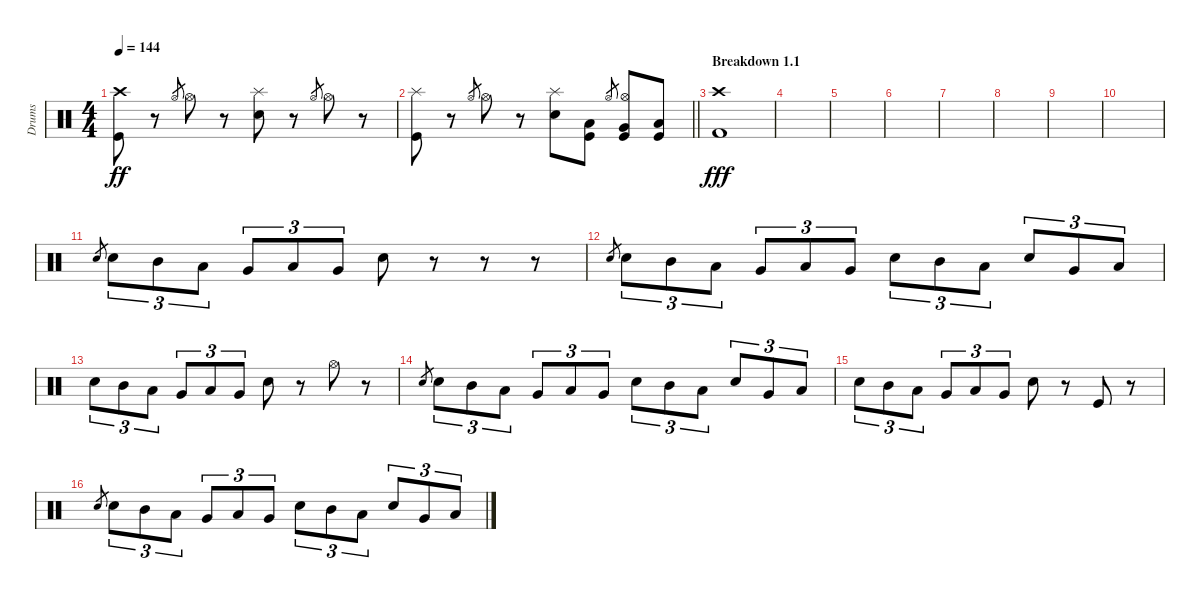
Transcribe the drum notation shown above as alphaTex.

\track ("Drums" "Drums") {instrument percussion}
\staff {score}
\articulation defaults
\ts (4 4)
\tempo 144
\clef neutral
\ks c
("Crash high (hit)" "Kick (hit)").8{dy ff} r.8 "Hi-Hat (open)".8{gr} "Hi-Hat (open)".8 r.8 ("Splash (hit)" "Snare (hit) 2").8 r.8 "Hi-Hat (open)".8{gr} "Hi-Hat (open)".8 r.8 |
\barLineRight lightlight
("Splash (hit)" "Kick (hit)").8 r.8 "Hi-Hat (open)".8{gr} "Hi-Hat (open)".8 r.8 ("Splash (hit)" "Snare (hit) 2").8 ("Low Tom (hit)" "Kick (hit)").8 "Hi-Hat (open)".8{gr} ("Hi-Hat (open)" "Very Low Tom (hit)" "Kick (hit)").8 ("Low Floor Tom (hit)" "Kick (hit)").8 |
\section ("" "Breakdown 1.1")
("Crash high (hit)" "Kick (hit) 2").1{dy fff} |
|
|
|
|
|
|
|
"Snare (hit) 2".8{gr} "Snare (hit) 2".8{tu (3 2)} "Mid Tom (hit)".8{tu (3 2)} "Low Tom (hit)".8{tu (3 2)} "Very Low Tom (hit)".8{tu (3 2)} "Low Floor Tom (hit)".8{tu (3 2)} "Very Low Tom (hit)".8{tu (3 2)} "Snare (hit) 2".8 r.8 r.8 r.8 |
"Snare (hit) 2".8{gr} "Snare (hit) 2".8{tu (3 2)} "Mid Tom (hit)".8{tu (3 2)} "Low Tom (hit)".8{tu (3 2)} "Very Low Tom (hit)".8{tu (3 2)} "Low Floor Tom (hit)".8{tu (3 2)} "Very Low Tom (hit)".8{tu (3 2)} "Snare (hit) 2".8{tu (3 2)} "Mid Tom (hit)".8{tu (3 2)} "Low Tom (hit)".8{tu (3 2)} "Snare (hit) 2".8{tu (3 2)} "Very Low Tom (hit)".8{tu (3 2)} "Low Floor Tom (hit)".8{tu (3 2)} |
"Snare (hit) 2".8{tu (3 2)} "Mid Tom (hit)".8{tu (3 2)} "Low Tom (hit)".8{tu (3 2)} "Very Low Tom (hit)".8{tu (3 2)} "Low Floor Tom (hit)".8{tu (3 2)} "Very Low Tom (hit)".8{tu (3 2)} "Snare (hit) 2".8 r.8 "Hi-Hat (open)".8 r.8{volume 0} |
"Snare (hit) 2".8{gr} "Snare (hit) 2".8{tu (3 2) volume 16} "Mid Tom (hit)".8{tu (3 2)} "Low Tom (hit)".8{tu (3 2)} "Very Low Tom (hit)".8{tu (3 2)} "Low Floor Tom (hit)".8{tu (3 2)} "Very Low Tom (hit)".8{tu (3 2)} "Snare (hit) 2".8{tu (3 2)} "Mid Tom (hit)".8{tu (3 2)} "Low Tom (hit)".8{tu (3 2)} "Snare (hit) 2".8{tu (3 2)} "Very Low Tom (hit)".8{tu (3 2)} "Low Floor Tom (hit)".8{tu (3 2)} |
"Snare (hit) 2".8{tu (3 2)} "Mid Tom (hit)".8{tu (3 2)} "Low Tom (hit)".8{tu (3 2)} "Very Low Tom (hit)".8{tu (3 2)} "Low Floor Tom (hit)".8{tu (3 2)} "Very Low Tom (hit)".8{tu (3 2)} "Snare (hit) 2".8 r.8 "Kick (hit)".8 r.8 |
"Snare (hit) 2".8{gr} "Snare (hit) 2".8{tu (3 2)} "Mid Tom (hit)".8{tu (3 2)} "Low Tom (hit)".8{tu (3 2)} "Very Low Tom (hit)".8{tu (3 2)} "Low Floor Tom (hit)".8{tu (3 2)} "Very Low Tom (hit)".8{tu (3 2)} "Snare (hit) 2".8{tu (3 2)} "Mid Tom (hit)".8{tu (3 2)} "Low Tom (hit)".8{tu (3 2)} "Snare (hit) 2".8{tu (3 2)} "Very Low Tom (hit)".8{tu (3 2)} "Low Floor Tom (hit)".8{tu (3 2)}
